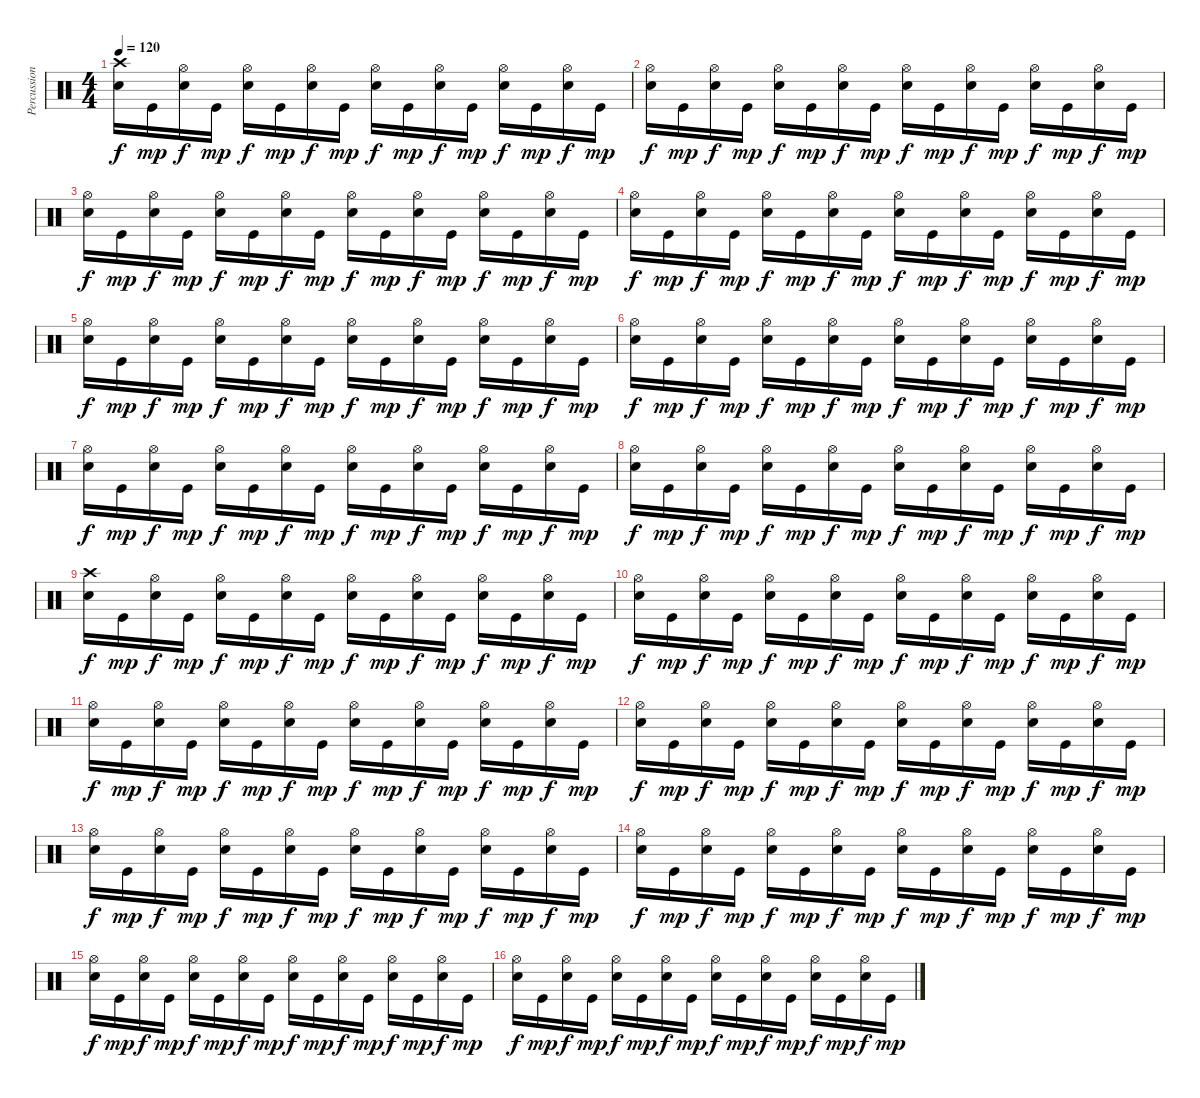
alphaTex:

\track ("Percussion" "Percussion") {instrument percussion}
\staff {score}
\articulation defaults
\ts (4 4)
\tempo 120
\clef neutral
\ks c
("Electric Snare (hit)" "Crash high (hit)").16{dy f} "Kick (hit)".16{dy mp} ("Electric Snare (hit)" "Hi-Hat (open)").16{dy f} "Kick (hit)".16{dy mp} ("Electric Snare (hit)" "Hi-Hat (open)").16{dy f} "Kick (hit)".16{dy mp} ("Electric Snare (hit)" "Hi-Hat (open)").16{dy f} "Kick (hit)".16{dy mp} ("Electric Snare (hit)" "Hi-Hat (open)").16{dy f} "Kick (hit)".16{dy mp} ("Electric Snare (hit)" "Hi-Hat (open)").16{dy f} "Kick (hit)".16{dy mp} ("Electric Snare (hit)" "Hi-Hat (open)").16{dy f} "Kick (hit)".16{dy mp} ("Electric Snare (hit)" "Hi-Hat (open)").16{dy f} "Kick (hit)".16{dy mp} |
("Electric Snare (hit)" "Hi-Hat (open)").16{dy f} "Kick (hit)".16{dy mp} ("Electric Snare (hit)" "Hi-Hat (open)").16{dy f} "Kick (hit)".16{dy mp} ("Electric Snare (hit)" "Hi-Hat (open)").16{dy f} "Kick (hit)".16{dy mp} ("Electric Snare (hit)" "Hi-Hat (open)").16{dy f} "Kick (hit)".16{dy mp} ("Electric Snare (hit)" "Hi-Hat (open)").16{dy f} "Kick (hit)".16{dy mp} ("Electric Snare (hit)" "Hi-Hat (open)").16{dy f} "Kick (hit)".16{dy mp} ("Electric Snare (hit)" "Hi-Hat (open)").16{dy f} "Kick (hit)".16{dy mp} ("Electric Snare (hit)" "Hi-Hat (open)").16{dy f} "Kick (hit)".16{dy mp} |
("Electric Snare (hit)" "Hi-Hat (open)").16{dy f} "Kick (hit)".16{dy mp} ("Electric Snare (hit)" "Hi-Hat (open)").16{dy f} "Kick (hit)".16{dy mp} ("Electric Snare (hit)" "Hi-Hat (open)").16{dy f} "Kick (hit)".16{dy mp} ("Electric Snare (hit)" "Hi-Hat (open)").16{dy f} "Kick (hit)".16{dy mp} ("Electric Snare (hit)" "Hi-Hat (open)").16{dy f} "Kick (hit)".16{dy mp} ("Electric Snare (hit)" "Hi-Hat (open)").16{dy f} "Kick (hit)".16{dy mp} ("Electric Snare (hit)" "Hi-Hat (open)").16{dy f} "Kick (hit)".16{dy mp} ("Electric Snare (hit)" "Hi-Hat (open)").16{dy f} "Kick (hit)".16{dy mp} |
("Electric Snare (hit)" "Hi-Hat (open)").16{dy f} "Kick (hit)".16{dy mp} ("Electric Snare (hit)" "Hi-Hat (open)").16{dy f} "Kick (hit)".16{dy mp} ("Electric Snare (hit)" "Hi-Hat (open)").16{dy f} "Kick (hit)".16{dy mp} ("Electric Snare (hit)" "Hi-Hat (open)").16{dy f} "Kick (hit)".16{dy mp} ("Electric Snare (hit)" "Hi-Hat (open)").16{dy f} "Kick (hit)".16{dy mp} ("Electric Snare (hit)" "Hi-Hat (open)").16{dy f} "Kick (hit)".16{dy mp} ("Electric Snare (hit)" "Hi-Hat (open)").16{dy f} "Kick (hit)".16{dy mp} ("Electric Snare (hit)" "Hi-Hat (open)").16{dy f} "Kick (hit)".16{dy mp} |
("Electric Snare (hit)" "Hi-Hat (open)").16{dy f} "Kick (hit)".16{dy mp} ("Electric Snare (hit)" "Hi-Hat (open)").16{dy f} "Kick (hit)".16{dy mp} ("Electric Snare (hit)" "Hi-Hat (open)").16{dy f} "Kick (hit)".16{dy mp} ("Electric Snare (hit)" "Hi-Hat (open)").16{dy f} "Kick (hit)".16{dy mp} ("Electric Snare (hit)" "Hi-Hat (open)").16{dy f} "Kick (hit)".16{dy mp} ("Electric Snare (hit)" "Hi-Hat (open)").16{dy f} "Kick (hit)".16{dy mp} ("Electric Snare (hit)" "Hi-Hat (open)").16{dy f} "Kick (hit)".16{dy mp} ("Electric Snare (hit)" "Hi-Hat (open)").16{dy f} "Kick (hit)".16{dy mp} |
("Electric Snare (hit)" "Hi-Hat (open)").16{dy f} "Kick (hit)".16{dy mp} ("Electric Snare (hit)" "Hi-Hat (open)").16{dy f} "Kick (hit)".16{dy mp} ("Electric Snare (hit)" "Hi-Hat (open)").16{dy f} "Kick (hit)".16{dy mp} ("Electric Snare (hit)" "Hi-Hat (open)").16{dy f} "Kick (hit)".16{dy mp} ("Electric Snare (hit)" "Hi-Hat (open)").16{dy f} "Kick (hit)".16{dy mp} ("Electric Snare (hit)" "Hi-Hat (open)").16{dy f} "Kick (hit)".16{dy mp} ("Electric Snare (hit)" "Hi-Hat (open)").16{dy f} "Kick (hit)".16{dy mp} ("Electric Snare (hit)" "Hi-Hat (open)").16{dy f} "Kick (hit)".16{dy mp} |
("Electric Snare (hit)" "Hi-Hat (open)").16{dy f} "Kick (hit)".16{dy mp} ("Electric Snare (hit)" "Hi-Hat (open)").16{dy f} "Kick (hit)".16{dy mp} ("Electric Snare (hit)" "Hi-Hat (open)").16{dy f} "Kick (hit)".16{dy mp} ("Electric Snare (hit)" "Hi-Hat (open)").16{dy f} "Kick (hit)".16{dy mp} ("Electric Snare (hit)" "Hi-Hat (open)").16{dy f} "Kick (hit)".16{dy mp} ("Electric Snare (hit)" "Hi-Hat (open)").16{dy f} "Kick (hit)".16{dy mp} ("Electric Snare (hit)" "Hi-Hat (open)").16{dy f} "Kick (hit)".16{dy mp} ("Electric Snare (hit)" "Hi-Hat (open)").16{dy f} "Kick (hit)".16{dy mp} |
("Electric Snare (hit)" "Hi-Hat (open)").16{dy f} "Kick (hit)".16{dy mp} ("Electric Snare (hit)" "Hi-Hat (open)").16{dy f} "Kick (hit)".16{dy mp} ("Electric Snare (hit)" "Hi-Hat (open)").16{dy f} "Kick (hit)".16{dy mp} ("Electric Snare (hit)" "Hi-Hat (open)").16{dy f} "Kick (hit)".16{dy mp} ("Electric Snare (hit)" "Hi-Hat (open)").16{dy f} "Kick (hit)".16{dy mp} ("Electric Snare (hit)" "Hi-Hat (open)").16{dy f} "Kick (hit)".16{dy mp} ("Electric Snare (hit)" "Hi-Hat (open)").16{dy f} "Kick (hit)".16{dy mp} ("Electric Snare (hit)" "Hi-Hat (open)").16{dy f} "Kick (hit)".16{dy mp} |
("Electric Snare (hit)" "Crash high (hit)").16{dy f} "Kick (hit)".16{dy mp} ("Electric Snare (hit)" "Hi-Hat (open)").16{dy f} "Kick (hit)".16{dy mp} ("Electric Snare (hit)" "Hi-Hat (open)").16{dy f} "Kick (hit)".16{dy mp} ("Electric Snare (hit)" "Hi-Hat (open)").16{dy f} "Kick (hit)".16{dy mp} ("Electric Snare (hit)" "Hi-Hat (open)").16{dy f} "Kick (hit)".16{dy mp} ("Electric Snare (hit)" "Hi-Hat (open)").16{dy f} "Kick (hit)".16{dy mp} ("Electric Snare (hit)" "Hi-Hat (open)").16{dy f} "Kick (hit)".16{dy mp} ("Electric Snare (hit)" "Hi-Hat (open)").16{dy f} "Kick (hit)".16{dy mp} |
("Electric Snare (hit)" "Hi-Hat (open)").16{dy f} "Kick (hit)".16{dy mp} ("Electric Snare (hit)" "Hi-Hat (open)").16{dy f} "Kick (hit)".16{dy mp} ("Electric Snare (hit)" "Hi-Hat (open)").16{dy f} "Kick (hit)".16{dy mp} ("Electric Snare (hit)" "Hi-Hat (open)").16{dy f} "Kick (hit)".16{dy mp} ("Electric Snare (hit)" "Hi-Hat (open)").16{dy f} "Kick (hit)".16{dy mp} ("Electric Snare (hit)" "Hi-Hat (open)").16{dy f} "Kick (hit)".16{dy mp} ("Electric Snare (hit)" "Hi-Hat (open)").16{dy f} "Kick (hit)".16{dy mp} ("Electric Snare (hit)" "Hi-Hat (open)").16{dy f} "Kick (hit)".16{dy mp} |
("Electric Snare (hit)" "Hi-Hat (open)").16{dy f} "Kick (hit)".16{dy mp} ("Electric Snare (hit)" "Hi-Hat (open)").16{dy f} "Kick (hit)".16{dy mp} ("Electric Snare (hit)" "Hi-Hat (open)").16{dy f} "Kick (hit)".16{dy mp} ("Electric Snare (hit)" "Hi-Hat (open)").16{dy f} "Kick (hit)".16{dy mp} ("Electric Snare (hit)" "Hi-Hat (open)").16{dy f} "Kick (hit)".16{dy mp} ("Electric Snare (hit)" "Hi-Hat (open)").16{dy f} "Kick (hit)".16{dy mp} ("Electric Snare (hit)" "Hi-Hat (open)").16{dy f} "Kick (hit)".16{dy mp} ("Electric Snare (hit)" "Hi-Hat (open)").16{dy f} "Kick (hit)".16{dy mp} |
("Electric Snare (hit)" "Hi-Hat (open)").16{dy f} "Kick (hit)".16{dy mp} ("Electric Snare (hit)" "Hi-Hat (open)").16{dy f} "Kick (hit)".16{dy mp} ("Electric Snare (hit)" "Hi-Hat (open)").16{dy f} "Kick (hit)".16{dy mp} ("Electric Snare (hit)" "Hi-Hat (open)").16{dy f} "Kick (hit)".16{dy mp} ("Electric Snare (hit)" "Hi-Hat (open)").16{dy f} "Kick (hit)".16{dy mp} ("Electric Snare (hit)" "Hi-Hat (open)").16{dy f} "Kick (hit)".16{dy mp} ("Electric Snare (hit)" "Hi-Hat (open)").16{dy f} "Kick (hit)".16{dy mp} ("Electric Snare (hit)" "Hi-Hat (open)").16{dy f} "Kick (hit)".16{dy mp} |
("Electric Snare (hit)" "Hi-Hat (open)").16{dy f} "Kick (hit)".16{dy mp} ("Electric Snare (hit)" "Hi-Hat (open)").16{dy f} "Kick (hit)".16{dy mp} ("Electric Snare (hit)" "Hi-Hat (open)").16{dy f} "Kick (hit)".16{dy mp} ("Electric Snare (hit)" "Hi-Hat (open)").16{dy f} "Kick (hit)".16{dy mp} ("Electric Snare (hit)" "Hi-Hat (open)").16{dy f} "Kick (hit)".16{dy mp} ("Electric Snare (hit)" "Hi-Hat (open)").16{dy f} "Kick (hit)".16{dy mp} ("Electric Snare (hit)" "Hi-Hat (open)").16{dy f} "Kick (hit)".16{dy mp} ("Electric Snare (hit)" "Hi-Hat (open)").16{dy f} "Kick (hit)".16{dy mp} |
("Electric Snare (hit)" "Hi-Hat (open)").16{dy f} "Kick (hit)".16{dy mp} ("Electric Snare (hit)" "Hi-Hat (open)").16{dy f} "Kick (hit)".16{dy mp} ("Electric Snare (hit)" "Hi-Hat (open)").16{dy f} "Kick (hit)".16{dy mp} ("Electric Snare (hit)" "Hi-Hat (open)").16{dy f} "Kick (hit)".16{dy mp} ("Electric Snare (hit)" "Hi-Hat (open)").16{dy f} "Kick (hit)".16{dy mp} ("Electric Snare (hit)" "Hi-Hat (open)").16{dy f} "Kick (hit)".16{dy mp} ("Electric Snare (hit)" "Hi-Hat (open)").16{dy f} "Kick (hit)".16{dy mp} ("Electric Snare (hit)" "Hi-Hat (open)").16{dy f} "Kick (hit)".16{dy mp} |
("Electric Snare (hit)" "Hi-Hat (open)").16{dy f} "Kick (hit)".16{dy mp} ("Electric Snare (hit)" "Hi-Hat (open)").16{dy f} "Kick (hit)".16{dy mp} ("Electric Snare (hit)" "Hi-Hat (open)").16{dy f} "Kick (hit)".16{dy mp} ("Electric Snare (hit)" "Hi-Hat (open)").16{dy f} "Kick (hit)".16{dy mp} ("Electric Snare (hit)" "Hi-Hat (open)").16{dy f} "Kick (hit)".16{dy mp} ("Electric Snare (hit)" "Hi-Hat (open)").16{dy f} "Kick (hit)".16{dy mp} ("Electric Snare (hit)" "Hi-Hat (open)").16{dy f} "Kick (hit)".16{dy mp} ("Electric Snare (hit)" "Hi-Hat (open)").16{dy f} "Kick (hit)".16{dy mp} |
("Electric Snare (hit)" "Hi-Hat (open)").16{dy f} "Kick (hit)".16{dy mp} ("Electric Snare (hit)" "Hi-Hat (open)").16{dy f} "Kick (hit)".16{dy mp} ("Electric Snare (hit)" "Hi-Hat (open)").16{dy f} "Kick (hit)".16{dy mp} ("Electric Snare (hit)" "Hi-Hat (open)").16{dy f} "Kick (hit)".16{dy mp} ("Electric Snare (hit)" "Hi-Hat (open)").16{dy f} "Kick (hit)".16{dy mp} ("Electric Snare (hit)" "Hi-Hat (open)").16{dy f} "Kick (hit)".16{dy mp} ("Electric Snare (hit)" "Hi-Hat (open)").16{dy f} "Kick (hit)".16{dy mp} ("Electric Snare (hit)" "Hi-Hat (open)").16{dy f} "Kick (hit)".16{dy mp}
